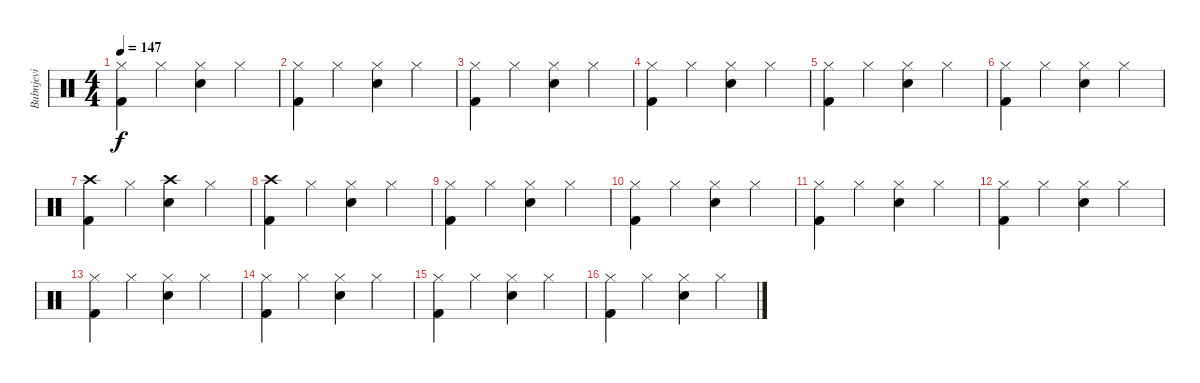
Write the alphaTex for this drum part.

\track ("Bubnjevi" "Bubnjevi") {instrument percussion}
\staff {score}
\articulation defaults
\ts (4 4)
\tempo 147
\clef neutral
\ks c
("Hi-Hat (closed)" "Kick (hit) 2").4{dy f} "Hi-Hat (closed)".4 ("Hi-Hat (closed)" "Electric Snare (hit)").4 "Hi-Hat (closed)".4 |
("Hi-Hat (closed)" "Kick (hit) 2").4 "Hi-Hat (closed)".4 ("Hi-Hat (closed)" "Electric Snare (hit)").4 "Hi-Hat (closed)".4 |
("Hi-Hat (closed)" "Kick (hit) 2").4 "Hi-Hat (closed)".4 ("Hi-Hat (closed)" "Electric Snare (hit)").4 "Hi-Hat (closed)".4 |
("Hi-Hat (closed)" "Kick (hit) 2").4 "Hi-Hat (closed)".4 ("Hi-Hat (closed)" "Electric Snare (hit)").4 "Hi-Hat (closed)".4 |
("Hi-Hat (closed)" "Kick (hit) 2").4 "Hi-Hat (closed)".4 ("Hi-Hat (closed)" "Electric Snare (hit)").4 "Hi-Hat (closed)".4 |
("Hi-Hat (closed)" "Kick (hit) 2").4 "Hi-Hat (closed)".4 ("Hi-Hat (closed)" "Electric Snare (hit)").4 "Hi-Hat (closed)".4 |
("Crash high (hit)" "Kick (hit) 2").4 "Hi-Hat (closed)".4 ("Crash high (hit)" "Electric Snare (hit)").4 "Hi-Hat (closed)".4 |
("Crash high (hit)" "Kick (hit) 2").4 "Hi-Hat (closed)".4 ("Hi-Hat (closed)" "Electric Snare (hit)").4 "Hi-Hat (closed)".4 |
("Hi-Hat (closed)" "Kick (hit) 2").4 "Hi-Hat (closed)".4 ("Hi-Hat (closed)" "Electric Snare (hit)").4 "Hi-Hat (closed)".4 |
("Hi-Hat (closed)" "Kick (hit) 2").4 "Hi-Hat (closed)".4 ("Hi-Hat (closed)" "Electric Snare (hit)").4 "Hi-Hat (closed)".4 |
("Hi-Hat (closed)" "Kick (hit) 2").4 "Hi-Hat (closed)".4 ("Hi-Hat (closed)" "Electric Snare (hit)").4 "Hi-Hat (closed)".4 |
("Hi-Hat (closed)" "Kick (hit) 2").4 "Hi-Hat (closed)".4 ("Hi-Hat (closed)" "Electric Snare (hit)").4 "Hi-Hat (closed)".4 |
("Hi-Hat (closed)" "Kick (hit) 2").4 "Hi-Hat (closed)".4 ("Hi-Hat (closed)" "Electric Snare (hit)").4 "Hi-Hat (closed)".4 |
("Hi-Hat (closed)" "Kick (hit) 2").4 "Hi-Hat (closed)".4 ("Hi-Hat (closed)" "Electric Snare (hit)").4 "Hi-Hat (closed)".4 |
("Hi-Hat (closed)" "Kick (hit) 2").4 "Hi-Hat (closed)".4 ("Hi-Hat (closed)" "Electric Snare (hit)").4 "Hi-Hat (closed)".4 |
("Hi-Hat (closed)" "Kick (hit) 2").4 "Hi-Hat (closed)".4 ("Hi-Hat (closed)" "Electric Snare (hit)").4 "Hi-Hat (closed)".4
